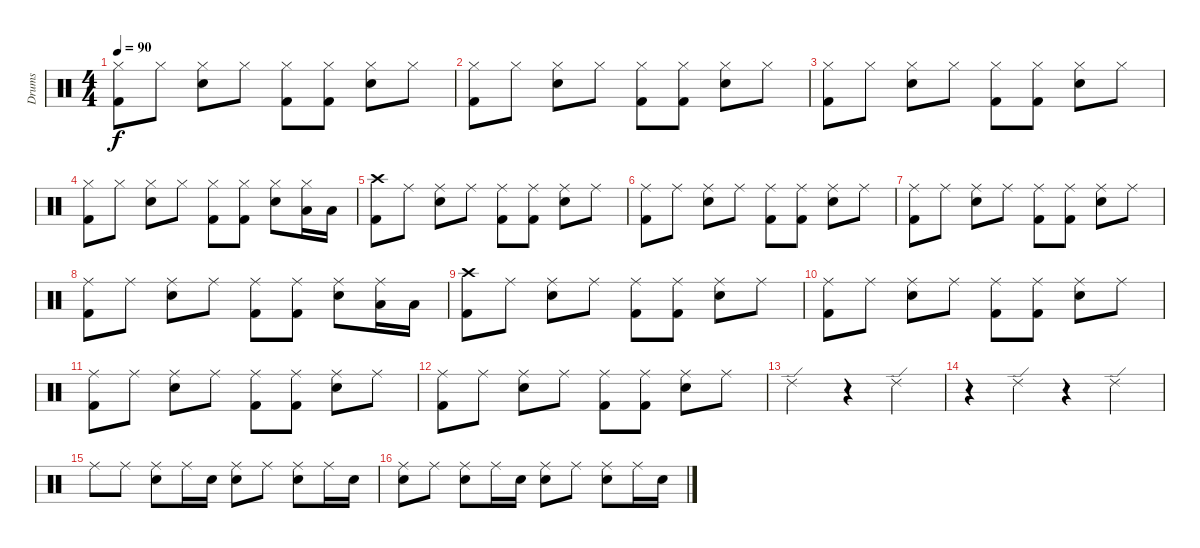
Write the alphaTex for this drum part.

\track ("Drums" "Drums") {instrument percussion}
\staff {score}
\articulation defaults
\ts (4 4)
\tempo 90
\clef neutral
\ks c
("Hi-Hat (closed)" "Kick (hit) 2").8{dy f} "Hi-Hat (closed)".8 ("Hi-Hat (closed)" "Snare (hit) 2").8 "Hi-Hat (closed)".8 ("Hi-Hat (closed)" "Kick (hit) 2").8 ("Hi-Hat (closed)" "Kick (hit) 2").8 ("Hi-Hat (closed)" "Snare (hit) 2").8 "Hi-Hat (closed)".8 |
("Hi-Hat (closed)" "Kick (hit) 2").8 "Hi-Hat (closed)".8 ("Hi-Hat (closed)" "Snare (hit) 2").8 "Hi-Hat (closed)".8 ("Hi-Hat (closed)" "Kick (hit) 2").8 ("Hi-Hat (closed)" "Kick (hit) 2").8 ("Hi-Hat (closed)" "Snare (hit) 2").8 "Hi-Hat (closed)".8 |
("Hi-Hat (closed)" "Kick (hit) 2").8 "Hi-Hat (closed)".8 ("Hi-Hat (closed)" "Snare (hit) 2").8 "Hi-Hat (closed)".8 ("Hi-Hat (closed)" "Kick (hit) 2").8 ("Hi-Hat (closed)" "Kick (hit) 2").8 ("Hi-Hat (closed)" "Snare (hit) 2").8 "Hi-Hat (closed)".8 |
("Hi-Hat (closed)" "Kick (hit) 2").8 "Hi-Hat (closed)".8 ("Hi-Hat (closed)" "Snare (hit) 2").8 "Hi-Hat (closed)".8 ("Hi-Hat (closed)" "Kick (hit) 2").8 ("Hi-Hat (closed)" "Kick (hit) 2").8 ("Hi-Hat (closed)" "Snare (hit) 2").8 ("Hi-Hat (closed)" "Low Tom (hit)").16 "Low Tom (hit)".16 |
("Crash high (hit)" "Kick (hit) 2").8 "Ride (middle)".8 ("Ride (middle)" "Snare (hit) 2").8 "Ride (middle)".8 ("Ride (middle)" "Kick (hit) 2").8 ("Ride (middle)" "Kick (hit) 2").8 ("Ride (middle)" "Snare (hit) 2").8 "Ride (middle)".8 |
("Ride (middle)" "Kick (hit) 2").8 "Ride (middle)".8 ("Ride (middle)" "Snare (hit) 2").8 "Ride (middle)".8 ("Ride (middle)" "Kick (hit) 2").8 ("Ride (middle)" "Kick (hit) 2").8 ("Ride (middle)" "Snare (hit) 2").8 "Ride (middle)".8 |
("Ride (middle)" "Kick (hit) 2").8 "Ride (middle)".8 ("Ride (middle)" "Snare (hit) 2").8 "Ride (middle)".8 ("Ride (middle)" "Kick (hit) 2").8 ("Ride (middle)" "Kick (hit) 2").8 ("Ride (middle)" "Snare (hit) 2").8 "Ride (middle)".8 |
("Ride (middle)" "Kick (hit) 2").8 "Ride (middle)".8 ("Ride (middle)" "Snare (hit) 2").8 "Ride (middle)".8 ("Ride (middle)" "Kick (hit) 2").8 ("Ride (middle)" "Kick (hit) 2").8 ("Ride (middle)" "Snare (hit) 2").8 ("Ride (middle)" "Low Tom (hit)").16 "Low Tom (hit)".16 |
("Crash high (hit)" "Kick (hit) 2").8 "Ride (middle)".8 ("Ride (middle)" "Snare (hit) 2").8 "Ride (middle)".8 ("Ride (middle)" "Kick (hit) 2").8 ("Ride (middle)" "Kick (hit) 2").8 ("Ride (middle)" "Snare (hit) 2").8 "Ride (middle)".8 |
("Ride (middle)" "Kick (hit) 2").8 "Ride (middle)".8 ("Ride (middle)" "Snare (hit) 2").8 "Ride (middle)".8 ("Ride (middle)" "Kick (hit) 2").8 ("Ride (middle)" "Kick (hit) 2").8 ("Ride (middle)" "Snare (hit) 2").8 "Ride (middle)".8 |
("Ride (middle)" "Kick (hit) 2").8 "Ride (middle)".8 ("Ride (middle)" "Snare (hit) 2").8 "Ride (middle)".8 ("Ride (middle)" "Kick (hit) 2").8 ("Ride (middle)" "Kick (hit) 2").8 ("Ride (middle)" "Snare (hit) 2").8 "Ride (middle)".8 |
("Ride (middle)" "Kick (hit) 2").8 "Ride (middle)".8 ("Ride (middle)" "Snare (hit) 2").8 "Ride (middle)".8 ("Ride (middle)" "Kick (hit) 2").8 ("Ride (middle)" "Kick (hit) 2").8 ("Ride (middle)" "Snare (hit) 2").8 "Ride (middle)".8 |
"Ride (edge) 2".2 r.4 "Ride (edge) 2".4 |
r.4 "Ride (edge) 2".4 r.4 "Ride (edge) 2".4 |
"Ride (middle)".8 "Ride (middle)".8 ("Ride (middle)" "Snare (hit) 2").8 "Ride (middle)".16 "Snare (hit) 2".16 ("Ride (middle)" "Snare (hit) 2").8 "Ride (middle)".8 ("Ride (middle)" "Snare (hit) 2").8 "Ride (middle)".16 "Snare (hit) 2".16 |
("Ride (middle)" "Snare (hit) 2").8 "Ride (middle)".8 ("Ride (middle)" "Snare (hit) 2").8 "Ride (middle)".16 "Snare (hit) 2".16 ("Ride (middle)" "Snare (hit) 2").8 "Ride (middle)".8 ("Ride (middle)" "Snare (hit) 2").8 "Ride (middle)".16 "Snare (hit) 2".16
